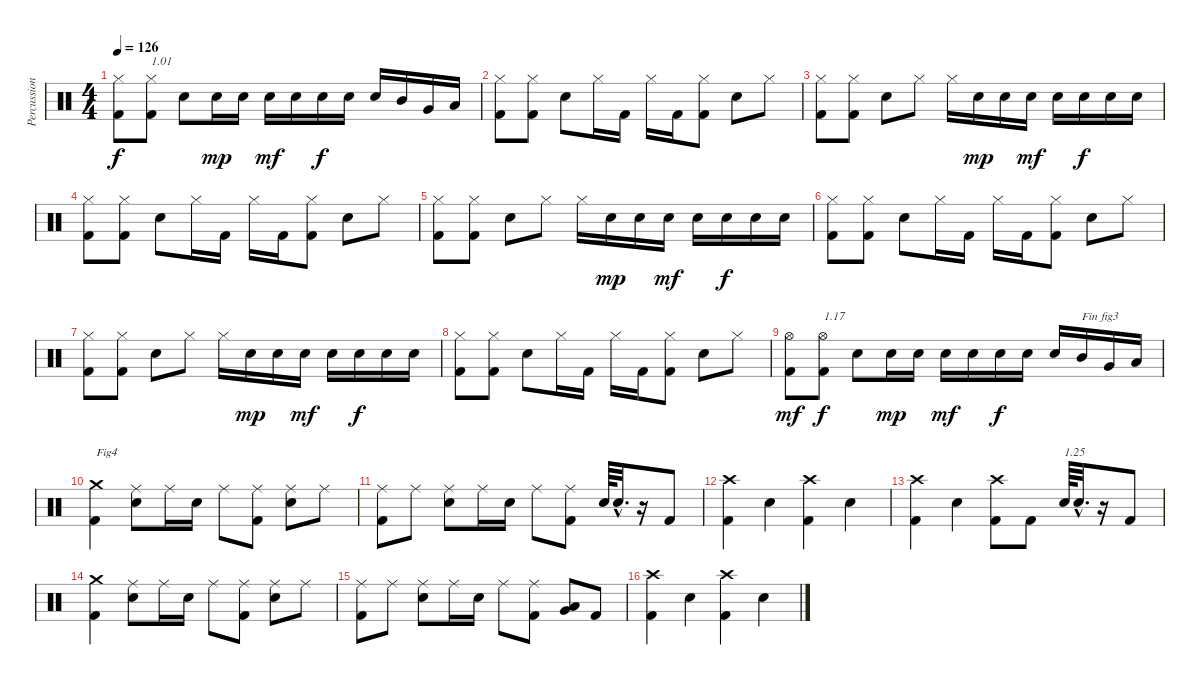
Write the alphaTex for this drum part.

\track ("Percussions" "Percussion") {instrument percussion}
\staff {score}
\articulation defaults
\ts (4 4)
\tempo 126
\clef neutral
\ks c
("Kick (hit) 2" "Hi-Hat (closed)").8{dy f} ("Kick (hit) 2" "Hi-Hat (closed)").8{txt "1.01"} "Electric Snare (hit)".8 "Electric Snare (hit)".16{dy mp} "Electric Snare (hit)".16 "Electric Snare (hit)".16{dy mf} "Electric Snare (hit)".16 "Electric Snare (hit)".16{dy f} "Electric Snare (hit)".16 "Electric Snare (hit)".16 "Mid Tom (hit)".16 "Very Low Tom (hit)".16 "Low Floor Tom (hit)".16 |
("Kick (hit) 2" "Hi-Hat (closed)").8 ("Kick (hit) 2" "Hi-Hat (closed)").8 "Electric Snare (hit)".8 "Hi-Hat (closed)".16 "Kick (hit) 2".16 "Hi-Hat (closed)".16 "Kick (hit) 2".16 ("Kick (hit) 2" "Hi-Hat (closed)").8 "Electric Snare (hit)".8 "Hi-Hat (closed)".8 |
("Kick (hit) 2" "Hi-Hat (closed)").8 ("Kick (hit) 2" "Hi-Hat (closed)").8 "Electric Snare (hit)".8 "Hi-Hat (closed)".8 "Hi-Hat (closed)".16 "Electric Snare (hit)".16{dy mp} "Electric Snare (hit)".16 "Electric Snare (hit)".16{dy mf} "Electric Snare (hit)".16 "Electric Snare (hit)".16{dy f} "Electric Snare (hit)".16 "Electric Snare (hit)".16 |
("Kick (hit) 2" "Hi-Hat (closed)").8 ("Kick (hit) 2" "Hi-Hat (closed)").8 "Electric Snare (hit)".8 "Hi-Hat (closed)".16 "Kick (hit) 2".16 "Hi-Hat (closed)".16 "Kick (hit) 2".16 ("Kick (hit) 2" "Hi-Hat (closed)").8 "Electric Snare (hit)".8 "Hi-Hat (closed)".8 |
("Kick (hit) 2" "Hi-Hat (closed)").8 ("Kick (hit) 2" "Hi-Hat (closed)").8 "Electric Snare (hit)".8 "Hi-Hat (closed)".8 "Hi-Hat (closed)".16 "Electric Snare (hit)".16{dy mp} "Electric Snare (hit)".16 "Electric Snare (hit)".16{dy mf} "Electric Snare (hit)".16 "Electric Snare (hit)".16{dy f} "Electric Snare (hit)".16 "Electric Snare (hit)".16 |
("Kick (hit) 2" "Hi-Hat (closed)").8 ("Kick (hit) 2" "Hi-Hat (closed)").8 "Electric Snare (hit)".8 "Hi-Hat (closed)".16 "Kick (hit) 2".16 "Hi-Hat (closed)".16 "Kick (hit) 2".16 ("Kick (hit) 2" "Hi-Hat (closed)").8 "Electric Snare (hit)".8 "Hi-Hat (closed)".8 |
("Kick (hit) 2" "Hi-Hat (closed)").8 ("Kick (hit) 2" "Hi-Hat (closed)").8 "Electric Snare (hit)".8 "Hi-Hat (closed)".8 "Hi-Hat (closed)".16 "Electric Snare (hit)".16{dy mp} "Electric Snare (hit)".16 "Electric Snare (hit)".16{dy mf} "Electric Snare (hit)".16 "Electric Snare (hit)".16{dy f} "Electric Snare (hit)".16 "Electric Snare (hit)".16 |
("Kick (hit) 2" "Hi-Hat (closed)").8 ("Kick (hit) 2" "Hi-Hat (closed)").8 "Electric Snare (hit)".8 "Hi-Hat (closed)".16 "Kick (hit) 2".16 "Hi-Hat (closed)".16 "Kick (hit) 2".16 ("Kick (hit) 2" "Hi-Hat (closed)").8 "Electric Snare (hit)".8 "Hi-Hat (closed)".8 |
("Kick (hit) 2" "Hi-Hat (open)").8{dy mf} ("Kick (hit) 2" "Hi-Hat (open)").8{txt "1.17" dy f} "Electric Snare (hit)".8 "Electric Snare (hit)".16{dy mp} "Electric Snare (hit)".16 "Electric Snare (hit)".16{dy mf} "Electric Snare (hit)".16 "Electric Snare (hit)".16{dy f} "Electric Snare (hit)".16 "Electric Snare (hit)".16 "Mid Tom (hit)".16{txt "Fin fig3"} "Very Low Tom (hit)".16 "Low Floor Tom (hit)".16 |
("Kick (hit) 2" "Crash medium (hit)").4{txt "Fig4"} ("Electric Snare (hit)" "Ride (middle)").8 "Ride (middle)".16 "Electric Snare (hit)".16 "Ride (middle)".8 ("Kick (hit) 2" "Ride (middle)").8 ("Electric Snare (hit)" "Ride (middle)").8 "Ride (middle)".8 |
("Kick (hit) 2" "Ride (middle)").8 "Ride (middle)".8 ("Electric Snare (hit)" "Ride (middle)").8 "Ride (middle)".16 "Electric Snare (hit)".16 "Ride (middle)".8 ("Kick (hit) 2" "Ride (middle)").8 "Electric Snare (hit)".64 "Electric Snare (hit)"{hac}.32{d} r.16 "Kick (hit) 2".8 |
("Kick (hit) 2" "Crash high (hit)").4 "Electric Snare (hit)".4 ("Kick (hit) 2" "Crash high (hit)").4 "Electric Snare (hit)".4 |
("Kick (hit) 2" "Crash high (hit)").4 "Electric Snare (hit)".4 ("Kick (hit) 2" "Crash high (hit)").8 "Kick (hit) 2".8 "Electric Snare (hit)".64{txt "1.25"} "Electric Snare (hit)"{hac}.32{d} r.16 "Kick (hit) 2".8 |
("Kick (hit) 2" "Crash medium (hit)").4 ("Electric Snare (hit)" "Ride (middle)").8 "Ride (middle)".16 "Electric Snare (hit)".16 "Ride (middle)".8 ("Kick (hit) 2" "Ride (middle)").8 ("Electric Snare (hit)" "Ride (middle)").8 "Ride (middle)".8 |
("Kick (hit) 2" "Ride (middle)").8 "Ride (middle)".8 ("Electric Snare (hit)" "Ride (middle)").8 "Ride (middle)".16 "Electric Snare (hit)".16 "Ride (middle)".8 ("Kick (hit) 2" "Ride (middle)").8 ("Very Low Tom (hit)" "Low Tom (hit)").8 "Kick (hit) 2".8 |
("Kick (hit) 2" "Crash high (hit)").4 "Electric Snare (hit)".4 ("Kick (hit) 2" "Crash high (hit)").4 "Electric Snare (hit)".4
